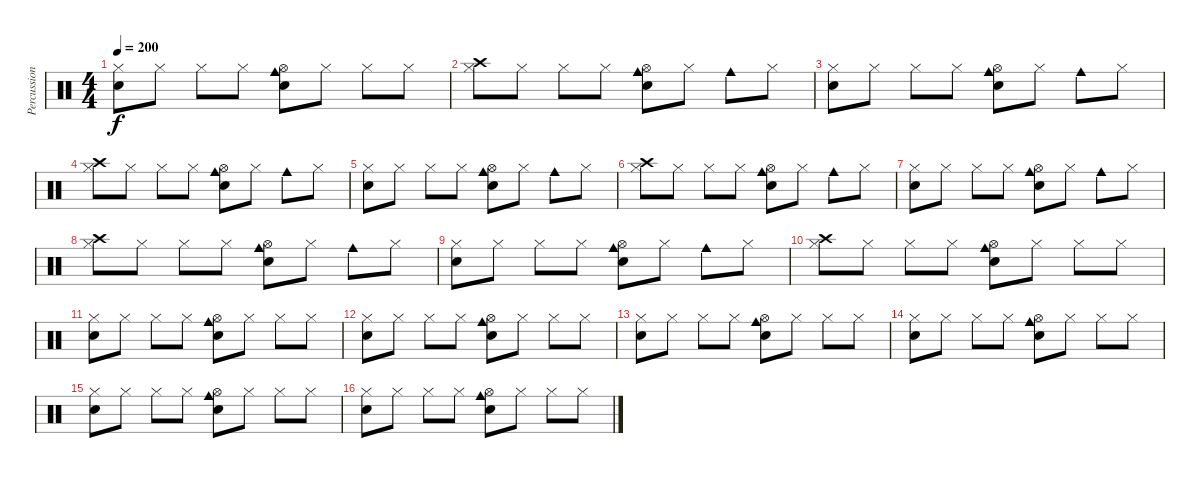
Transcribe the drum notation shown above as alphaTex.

\track ("Percussion" "Percussion") {instrument percussion}
\staff {score}
\articulation defaults
\ts (4 4)
\tempo 200
\clef neutral
\ks c
("Hi-Hat (closed)" "Electric Snare (hit)").8{dy f} "Hi-Hat (closed)".8 "Hi-Hat (closed)".8 "Hi-Hat (closed)".8 ("Cowbell medium (hit)" "Snare (hit) 2" "Hi-Hat (open)").8 "Hi-Hat (closed)".8 "Hi-Hat (closed)".8 "Hi-Hat (closed)".8 |
("Hi-Hat (closed)" "Crash high (hit)").8 "Hi-Hat (closed)".8 "Hi-Hat (closed)".8 "Hi-Hat (closed)".8 ("Cowbell medium (hit)" "Snare (hit) 2" "Hi-Hat (open)").8 "Hi-Hat (closed)".8 "Cowbell medium (hit)".8 "Hi-Hat (closed)".8 |
("Hi-Hat (closed)" "Electric Snare (hit)").8 "Hi-Hat (closed)".8 "Hi-Hat (closed)".8 "Hi-Hat (closed)".8 ("Cowbell medium (hit)" "Snare (hit) 2" "Hi-Hat (open)").8 "Hi-Hat (closed)".8 "Cowbell medium (hit)".8 "Hi-Hat (closed)".8 |
("Hi-Hat (closed)" "Crash high (hit)").8 "Hi-Hat (closed)".8 "Hi-Hat (closed)".8 "Hi-Hat (closed)".8 ("Cowbell medium (hit)" "Snare (hit) 2" "Hi-Hat (open)").8 "Hi-Hat (closed)".8 "Cowbell medium (hit)".8 "Hi-Hat (closed)".8 |
("Hi-Hat (closed)" "Electric Snare (hit)").8 "Hi-Hat (closed)".8 "Hi-Hat (closed)".8 "Hi-Hat (closed)".8 ("Cowbell medium (hit)" "Snare (hit) 2" "Hi-Hat (open)").8 "Hi-Hat (closed)".8 "Cowbell medium (hit)".8 "Hi-Hat (closed)".8 |
("Hi-Hat (closed)" "Crash high (hit)").8 "Hi-Hat (closed)".8 "Hi-Hat (closed)".8 "Hi-Hat (closed)".8 ("Cowbell medium (hit)" "Snare (hit) 2" "Hi-Hat (open)").8 "Hi-Hat (closed)".8 "Cowbell medium (hit)".8 "Hi-Hat (closed)".8 |
("Hi-Hat (closed)" "Electric Snare (hit)").8 "Hi-Hat (closed)".8 "Hi-Hat (closed)".8 "Hi-Hat (closed)".8 ("Cowbell medium (hit)" "Snare (hit) 2" "Hi-Hat (open)").8 "Hi-Hat (closed)".8 "Cowbell medium (hit)".8 "Hi-Hat (closed)".8 |
("Hi-Hat (closed)" "Crash high (hit)").8 "Hi-Hat (closed)".8 "Hi-Hat (closed)".8 "Hi-Hat (closed)".8 ("Cowbell medium (hit)" "Snare (hit) 2" "Hi-Hat (open)").8 "Hi-Hat (closed)".8 "Cowbell medium (hit)".8 "Hi-Hat (closed)".8 |
("Hi-Hat (closed)" "Electric Snare (hit)").8 "Hi-Hat (closed)".8 "Hi-Hat (closed)".8 "Hi-Hat (closed)".8 ("Cowbell medium (hit)" "Snare (hit) 2" "Hi-Hat (open)").8 "Hi-Hat (closed)".8 "Cowbell medium (hit)".8 "Hi-Hat (closed)".8 |
("Hi-Hat (closed)" "Crash high (hit)").8 "Hi-Hat (closed)".8 "Hi-Hat (closed)".8 "Hi-Hat (closed)".8 ("Cowbell medium (hit)" "Snare (hit) 2" "Hi-Hat (open)").8 "Hi-Hat (closed)".8 "Hi-Hat (closed)".8 "Hi-Hat (closed)".8 |
("Hi-Hat (closed)" "Electric Snare (hit)").8 "Hi-Hat (closed)".8 "Hi-Hat (closed)".8 "Hi-Hat (closed)".8 ("Cowbell medium (hit)" "Snare (hit) 2" "Hi-Hat (open)").8 "Hi-Hat (closed)".8 "Hi-Hat (closed)".8 "Hi-Hat (closed)".8 |
("Hi-Hat (closed)" "Electric Snare (hit)").8 "Hi-Hat (closed)".8 "Hi-Hat (closed)".8 "Hi-Hat (closed)".8 ("Cowbell medium (hit)" "Snare (hit) 2" "Hi-Hat (open)").8 "Hi-Hat (closed)".8 "Hi-Hat (closed)".8 "Hi-Hat (closed)".8 |
("Hi-Hat (closed)" "Electric Snare (hit)").8 "Hi-Hat (closed)".8 "Hi-Hat (closed)".8 "Hi-Hat (closed)".8 ("Cowbell medium (hit)" "Snare (hit) 2" "Hi-Hat (open)").8 "Hi-Hat (closed)".8 "Hi-Hat (closed)".8 "Hi-Hat (closed)".8 |
("Hi-Hat (closed)" "Electric Snare (hit)").8 "Hi-Hat (closed)".8 "Hi-Hat (closed)".8 "Hi-Hat (closed)".8 ("Cowbell medium (hit)" "Snare (hit) 2" "Hi-Hat (open)").8 "Hi-Hat (closed)".8 "Hi-Hat (closed)".8 "Hi-Hat (closed)".8 |
("Hi-Hat (closed)" "Electric Snare (hit)").8 "Hi-Hat (closed)".8 "Hi-Hat (closed)".8 "Hi-Hat (closed)".8 ("Cowbell medium (hit)" "Snare (hit) 2" "Hi-Hat (open)").8 "Hi-Hat (closed)".8 "Hi-Hat (closed)".8 "Hi-Hat (closed)".8 |
("Hi-Hat (closed)" "Electric Snare (hit)").8 "Hi-Hat (closed)".8 "Hi-Hat (closed)".8 "Hi-Hat (closed)".8 ("Cowbell medium (hit)" "Snare (hit) 2" "Hi-Hat (open)").8 "Hi-Hat (closed)".8 "Hi-Hat (closed)".8 "Hi-Hat (closed)".8
